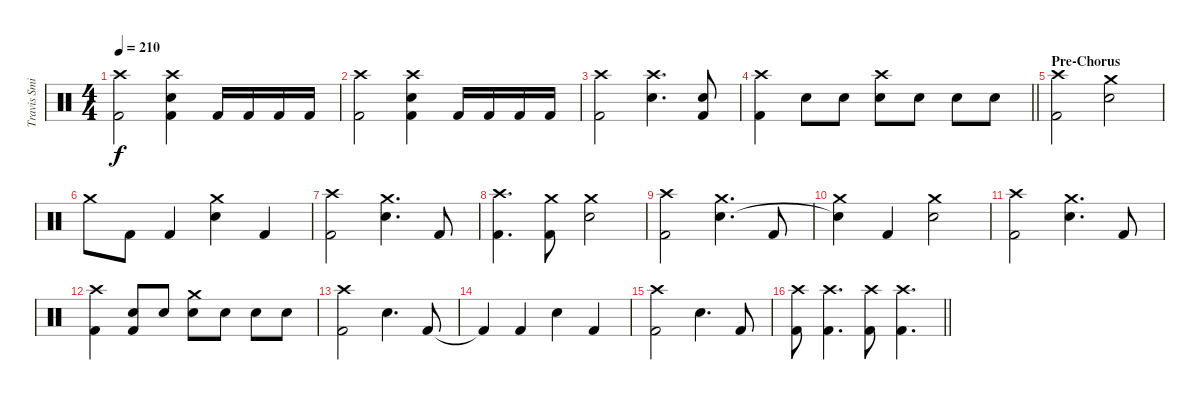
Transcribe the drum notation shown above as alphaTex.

\track ("Travis Smith" "Travis Smi") {instrument percussion}
\staff {score}
\articulation defaults
\ts (4 4)
\tempo 210
\clef neutral
\ks c
("Crash high (hit)" "Kick (hit) 2").2{dy f} ("Crash high (hit)" "Snare (hit) 2" "Kick (hit) 2").4 "Kick (hit) 2".16 "Kick (hit) 2".16 "Kick (hit) 2".16 "Kick (hit) 2".16 |
("Crash high (hit)" "Kick (hit) 2").2 ("Crash high (hit)" "Snare (hit) 2" "Kick (hit) 2").4 "Kick (hit) 2".16 "Kick (hit) 2".16 "Kick (hit) 2".16 "Kick (hit) 2".16 |
("Crash high (hit)" "Kick (hit) 2").2 ("Crash high (hit)" "Snare (hit) 2").4{d} ("Snare (hit) 2" "Kick (hit) 2").8 |
\barLineRight lightlight
("Crash high (hit)" "Kick (hit) 2").4 "Snare (hit) 2".8 "Snare (hit) 2".8 ("Crash high (hit)" "Snare (hit) 2").8 "Snare (hit) 2".8 "Snare (hit) 2".8 "Snare (hit) 2".8 |
\section ("" "Pre-Chorus")
("Crash high (hit)" "Kick (hit) 2").2 ("Crash medium (hit)" "Snare (hit) 2").2 |
"Crash medium (hit)".8 "Kick (hit) 2".8 "Kick (hit) 2".4 ("Crash medium (hit)" "Snare (hit) 2").4 "Kick (hit) 2".4 |
("Crash high (hit)" "Kick (hit) 2").2 ("Crash medium (hit)" "Snare (hit) 2").4{d} "Kick (hit) 2".8 |
("Crash high (hit)" "Kick (hit) 2").4{d} ("Crash medium (hit)" "Kick (hit) 2").8 ("Crash medium (hit)" "Snare (hit) 2").2 |
("Crash high (hit)" "Kick (hit) 2").2 ("Crash medium (hit)" "Snare (hit) 2").4{d} "Kick (hit) 2".8 |
("Crash medium (hit)" "Snare (hit)"{t}).4 "Kick (hit) 2".4 ("Crash medium (hit)" "Snare (hit) 2").2 |
("Crash high (hit)" "Kick (hit) 2").2 ("Crash medium (hit)" "Snare (hit) 2").4{d} "Kick (hit) 2".8 |
("Crash high (hit)" "Kick (hit) 2").4 ("Snare (hit) 2" "Kick (hit) 2").8 "Snare (hit) 2".8 ("Crash medium (hit)" "Snare (hit) 2").8 "Snare (hit) 2".8 "Snare (hit) 2".8 "Snare (hit) 2".8 |
("Crash high (hit)" "Kick (hit) 2").2 "Snare (hit) 2".4{d} "Kick (hit) 2".8 |
"Kick (hit) 2"{t}.4 "Kick (hit) 2".4 "Snare (hit) 2".4 "Kick (hit) 2".4 |
("Crash high (hit)" "Kick (hit) 2").2 "Snare (hit) 2".4{d} "Kick (hit) 2".8 |
\barLineRight lightlight
("Crash high (hit)" "Kick (hit) 2").8 ("Crash high (hit)" "Kick (hit) 2").4{d} ("Crash high (hit)" "Kick (hit) 2").8 ("Crash high (hit)" "Kick (hit) 2").4{d}
